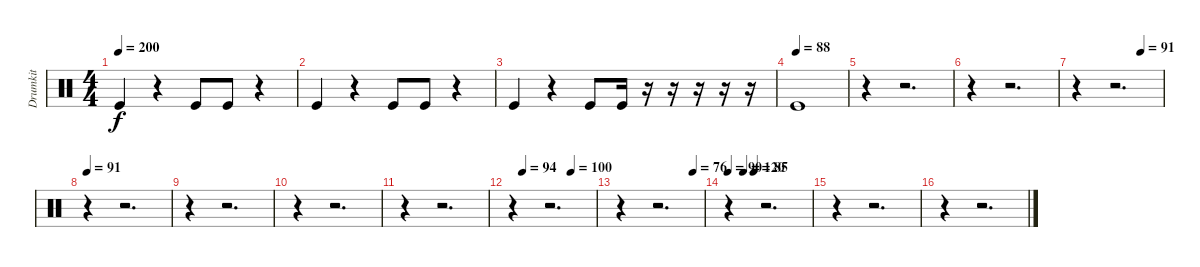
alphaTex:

\track ("Drumkit" "Drumkit") {instrument percussion}
\staff {score}
\articulation defaults
\ts (4 4)
\tempo 200
\clef neutral
\ks c "Kick (hit)".4{dy f}
r.4 "Kick (hit)".8 "Kick (hit)".8 r.4 |
"Kick (hit)".4 r.4 "Kick (hit)".8 "Kick (hit)".8 r.4 |
"Kick (hit)".4 r.4 "Kick (hit)".8 "Kick (hit)".16 r.16 r.16 r.16 r.16 r.16 |
\tempo (88)
"Kick (hit)".1 |
r.4 r.2{d} |
r.4 r.2{d} |
\tempo (91 0.75)
r.4 r.2{d} |
\tempo 91
r.4 r.2{d} |
r.4 r.2{d} |
r.4 r.2{d} |
r.4 r.2{d} |
\tempo (94 0.125)
\tempo (100 0.7083333333333334)
r.4 r.2{d} |
\tempo (76 0.875)
r.4 r.2{d} |
\tempo 90
\tempo (120 0.1875)
\tempo (85 0.3125)
r.4 r.2{d} |
r.4 r.2{d} |
r.4 r.2{d}
